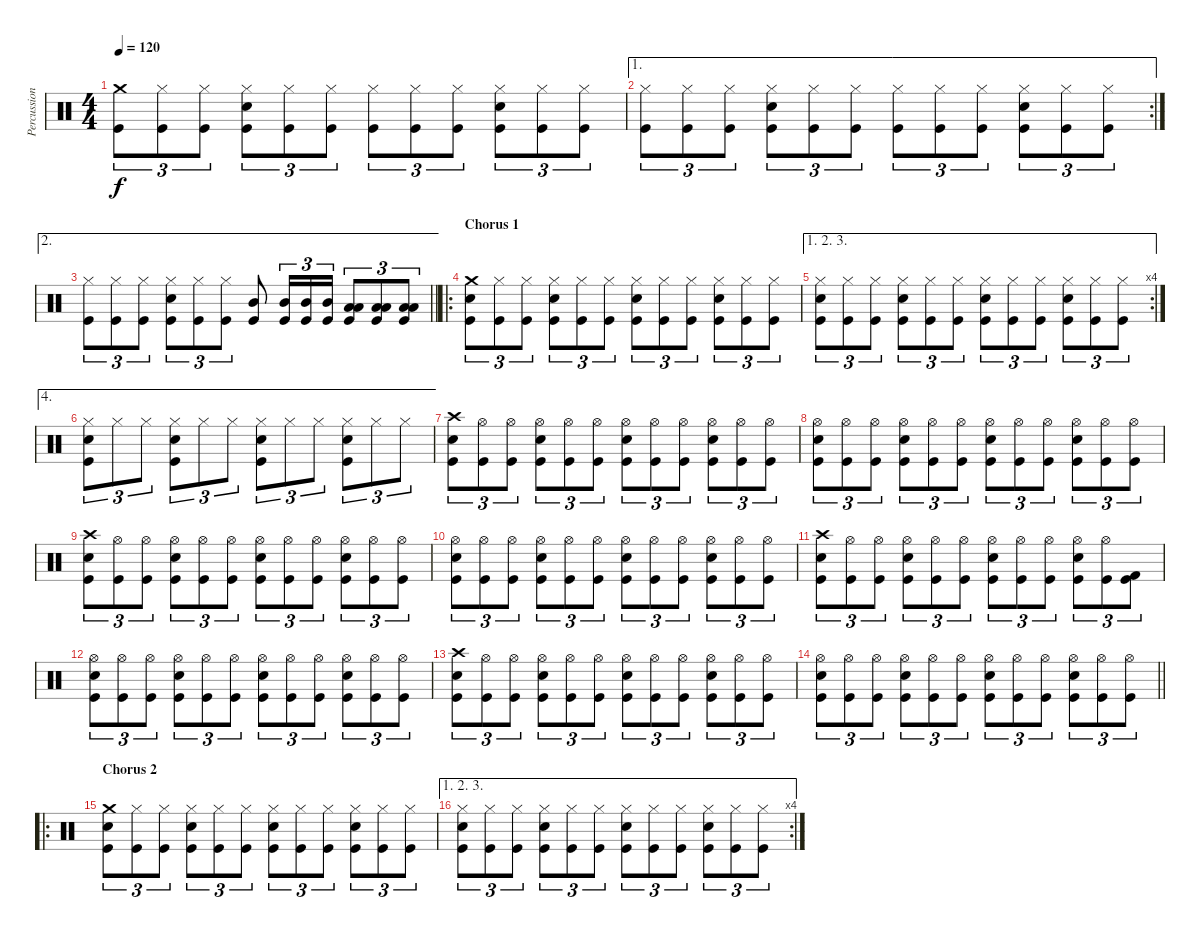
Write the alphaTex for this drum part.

\track ("Percussion" "Percussion") {instrument percussion}
\staff {score}
\articulation defaults
\ts (4 4)
\tempo 120
\clef neutral
\ks c
("Crash medium (hit)" "Kick (hit)").8{tu (3 2) dy f} ("Hi-Hat (closed)" "Kick (hit)").8{tu (3 2)} ("Hi-Hat (closed)" "Kick (hit)").8{tu (3 2)} ("Hi-Hat (closed)" "Snare (hit) 2" "Kick (hit)").8{tu (3 2)} ("Hi-Hat (closed)" "Kick (hit)").8{tu (3 2)} ("Hi-Hat (closed)" "Kick (hit)").8{tu (3 2)} ("Hi-Hat (closed)" "Kick (hit)").8{tu (3 2)} ("Hi-Hat (closed)" "Kick (hit)").8{tu (3 2)} ("Hi-Hat (closed)" "Kick (hit)").8{tu (3 2)} ("Hi-Hat (closed)" "Snare (hit) 2" "Kick (hit)").8{tu (3 2)} ("Hi-Hat (closed)" "Kick (hit)").8{tu (3 2)} ("Hi-Hat (closed)" "Kick (hit)").8{tu (3 2)} |
\ae 1
\rc 2
("Hi-Hat (closed)" "Kick (hit)").8{tu (3 2)} ("Hi-Hat (closed)" "Kick (hit)").8{tu (3 2)} ("Hi-Hat (closed)" "Kick (hit)").8{tu (3 2)} ("Hi-Hat (closed)" "Snare (hit) 2" "Kick (hit)").8{tu (3 2)} ("Hi-Hat (closed)" "Kick (hit)").8{tu (3 2)} ("Hi-Hat (closed)" "Kick (hit)").8{tu (3 2)} ("Hi-Hat (closed)" "Kick (hit)").8{tu (3 2)} ("Hi-Hat (closed)" "Kick (hit)").8{tu (3 2)} ("Hi-Hat (closed)" "Kick (hit)").8{tu (3 2)} ("Hi-Hat (closed)" "Snare (hit) 2" "Kick (hit)").8{tu (3 2)} ("Hi-Hat (closed)" "Kick (hit)").8{tu (3 2)} ("Hi-Hat (closed)" "Kick (hit)").8{tu (3 2)} |
\ae 2
\barLineRight lightlight
("Hi-Hat (closed)" "Kick (hit)").8{tu (3 2)} ("Hi-Hat (closed)" "Kick (hit)").8{tu (3 2)} ("Hi-Hat (closed)" "Kick (hit)").8{tu (3 2)} ("Hi-Hat (closed)" "Snare (hit) 2" "Kick (hit)").8{tu (3 2)} ("Hi-Hat (closed)" "Kick (hit)").8{tu (3 2)} ("Hi-Hat (closed)" "Kick (hit)").8{tu (3 2)} ("Mid Tom (hit)" "Kick (hit)").8 ("Mid Tom (hit)" "Kick (hit)").16{tu (3 2)} ("Mid Tom (hit)" "Kick (hit)").16{tu (3 2)} ("Mid Tom (hit)" "Kick (hit)").16{tu (3 2)} ("Low Tom (hit)" "Low Tom (hit)" "Kick (hit)").8{tu (3 2)} ("Low Tom (hit)" "Low Tom (hit)" "Kick (hit)").8{tu (3 2)} ("Low Tom (hit)" "Low Tom (hit)" "Kick (hit)").8{tu (3 2)} |
\ro
\section ("" "Chorus 1")
("Crash medium (hit)" "Snare (hit) 2" "Kick (hit)").8{tu (3 2)} ("Hi-Hat (closed)" "Kick (hit)").8{tu (3 2)} ("Hi-Hat (closed)" "Kick (hit)").8{tu (3 2)} ("Hi-Hat (closed)" "Snare (hit) 2" "Kick (hit)").8{tu (3 2)} ("Hi-Hat (closed)" "Kick (hit)").8{tu (3 2)} ("Hi-Hat (closed)" "Kick (hit)").8{tu (3 2)} ("Hi-Hat (closed)" "Snare (hit) 2" "Kick (hit)").8{tu (3 2)} ("Hi-Hat (closed)" "Kick (hit)").8{tu (3 2)} ("Hi-Hat (closed)" "Kick (hit)").8{tu (3 2)} ("Hi-Hat (closed)" "Snare (hit) 2" "Kick (hit)").8{tu (3 2)} ("Hi-Hat (closed)" "Kick (hit)").8{tu (3 2)} ("Hi-Hat (closed)" "Kick (hit)").8{tu (3 2)} |
\ae (1 2 3)
\rc 4
("Hi-Hat (closed)" "Snare (hit) 2" "Kick (hit)").8{tu (3 2)} ("Hi-Hat (closed)" "Kick (hit)").8{tu (3 2)} ("Hi-Hat (closed)" "Kick (hit)").8{tu (3 2)} ("Hi-Hat (closed)" "Snare (hit) 2" "Kick (hit)").8{tu (3 2)} ("Hi-Hat (closed)" "Kick (hit)").8{tu (3 2)} ("Hi-Hat (closed)" "Kick (hit)").8{tu (3 2)} ("Hi-Hat (closed)" "Snare (hit) 2" "Kick (hit)").8{tu (3 2)} ("Hi-Hat (closed)" "Kick (hit)").8{tu (3 2)} ("Hi-Hat (closed)" "Kick (hit)").8{tu (3 2)} ("Hi-Hat (closed)" "Snare (hit) 2" "Kick (hit)").8{tu (3 2)} ("Hi-Hat (closed)" "Kick (hit)").8{tu (3 2)} ("Hi-Hat (closed)" "Kick (hit)").8{tu (3 2)} |
\ae 4
("Hi-Hat (closed)" "Snare (hit) 2" "Kick (hit)").8{tu (3 2)} "Hi-Hat (closed)".8{tu (3 2)} "Hi-Hat (closed)".8{tu (3 2)} ("Hi-Hat (closed)" "Snare (hit) 2" "Kick (hit)").8{tu (3 2)} "Hi-Hat (closed)".8{tu (3 2)} "Hi-Hat (closed)".8{tu (3 2)} ("Hi-Hat (closed)" "Snare (hit) 2" "Kick (hit)").8{tu (3 2)} "Hi-Hat (closed)".8{tu (3 2)} "Hi-Hat (closed)".8{tu (3 2)} ("Hi-Hat (closed)" "Snare (hit) 2" "Kick (hit)").8{tu (3 2)} "Hi-Hat (closed)".8{tu (3 2)} "Hi-Hat (closed)".8{tu (3 2)} |
("Crash high (hit)" "Snare (hit) 2" "Kick (hit)").8{tu (3 2)} ("Hi-Hat (open)" "Kick (hit)").8{tu (3 2)} ("Hi-Hat (open)" "Kick (hit)").8{tu (3 2)} ("Hi-Hat (open)" "Snare (hit) 2" "Kick (hit)").8{tu (3 2)} ("Hi-Hat (open)" "Kick (hit)").8{tu (3 2)} ("Hi-Hat (open)" "Kick (hit)").8{tu (3 2)} ("Hi-Hat (open)" "Snare (hit) 2" "Kick (hit)").8{tu (3 2)} ("Hi-Hat (open)" "Kick (hit)").8{tu (3 2)} ("Hi-Hat (open)" "Kick (hit)").8{tu (3 2)} ("Hi-Hat (open)" "Snare (hit) 2" "Kick (hit)").8{tu (3 2)} ("Hi-Hat (open)" "Kick (hit)").8{tu (3 2)} ("Hi-Hat (open)" "Kick (hit)").8{tu (3 2)} |
("Hi-Hat (open)" "Snare (hit) 2" "Kick (hit)").8{tu (3 2)} ("Hi-Hat (open)" "Kick (hit)").8{tu (3 2)} ("Hi-Hat (open)" "Kick (hit)").8{tu (3 2)} ("Hi-Hat (open)" "Snare (hit) 2" "Kick (hit)").8{tu (3 2)} ("Hi-Hat (open)" "Kick (hit)").8{tu (3 2)} ("Hi-Hat (open)" "Kick (hit)").8{tu (3 2)} ("Hi-Hat (open)" "Snare (hit) 2" "Kick (hit)").8{tu (3 2)} ("Hi-Hat (open)" "Kick (hit)").8{tu (3 2)} ("Hi-Hat (open)" "Kick (hit)").8{tu (3 2)} ("Hi-Hat (open)" "Snare (hit) 2" "Kick (hit)").8{tu (3 2)} ("Hi-Hat (open)" "Kick (hit)").8{tu (3 2)} ("Hi-Hat (open)" "Kick (hit)").8{tu (3 2)} |
("Crash high (hit)" "Snare (hit) 2" "Kick (hit)").8{tu (3 2)} ("Hi-Hat (open)" "Kick (hit)").8{tu (3 2)} ("Hi-Hat (open)" "Kick (hit)").8{tu (3 2)} ("Hi-Hat (open)" "Snare (hit) 2" "Kick (hit)").8{tu (3 2)} ("Hi-Hat (open)" "Kick (hit)").8{tu (3 2)} ("Hi-Hat (open)" "Kick (hit)").8{tu (3 2)} ("Hi-Hat (open)" "Snare (hit) 2" "Kick (hit)").8{tu (3 2)} ("Hi-Hat (open)" "Kick (hit)").8{tu (3 2)} ("Hi-Hat (open)" "Kick (hit)").8{tu (3 2)} ("Hi-Hat (open)" "Snare (hit) 2" "Kick (hit)").8{tu (3 2)} ("Hi-Hat (open)" "Kick (hit)").8{tu (3 2)} ("Hi-Hat (open)" "Kick (hit)").8{tu (3 2)} |
("Hi-Hat (open)" "Snare (hit) 2" "Kick (hit)").8{tu (3 2)} ("Hi-Hat (open)" "Kick (hit)").8{tu (3 2)} ("Hi-Hat (open)" "Kick (hit)").8{tu (3 2)} ("Hi-Hat (open)" "Snare (hit) 2" "Kick (hit)").8{tu (3 2)} ("Hi-Hat (open)" "Kick (hit)").8{tu (3 2)} ("Hi-Hat (open)" "Kick (hit)").8{tu (3 2)} ("Hi-Hat (open)" "Snare (hit) 2" "Kick (hit)").8{tu (3 2)} ("Hi-Hat (open)" "Kick (hit)").8{tu (3 2)} ("Hi-Hat (open)" "Kick (hit)").8{tu (3 2)} ("Hi-Hat (open)" "Snare (hit) 2" "Kick (hit)").8{tu (3 2)} ("Hi-Hat (open)" "Kick (hit)").8{tu (3 2)} ("Hi-Hat (open)" "Kick (hit)").8{tu (3 2)} |
("Crash high (hit)" "Snare (hit) 2" "Kick (hit)").8{tu (3 2)} ("Hi-Hat (open)" "Kick (hit)").8{tu (3 2)} ("Hi-Hat (open)" "Kick (hit)").8{tu (3 2)} ("Hi-Hat (open)" "Snare (hit) 2" "Kick (hit)").8{tu (3 2)} ("Hi-Hat (open)" "Kick (hit)").8{tu (3 2)} ("Hi-Hat (open)" "Kick (hit)").8{tu (3 2)} ("Hi-Hat (open)" "Snare (hit) 2" "Kick (hit)").8{tu (3 2)} ("Hi-Hat (open)" "Kick (hit)").8{tu (3 2)} ("Hi-Hat (open)" "Kick (hit)").8{tu (3 2)} ("Hi-Hat (open)" "Snare (hit) 2" "Kick (hit)").8{tu (3 2)} ("Hi-Hat (open)" "Kick (hit)").8{tu (3 2)} ("Kick (hit) 2" "Kick (hit)").8{tu (3 2)} |
("Hi-Hat (open)" "Snare (hit) 2" "Kick (hit)").8{tu (3 2)} ("Hi-Hat (open)" "Kick (hit)").8{tu (3 2)} ("Hi-Hat (open)" "Kick (hit)").8{tu (3 2)} ("Hi-Hat (open)" "Snare (hit) 2" "Kick (hit)").8{tu (3 2)} ("Hi-Hat (open)" "Kick (hit)").8{tu (3 2)} ("Hi-Hat (open)" "Kick (hit)").8{tu (3 2)} ("Hi-Hat (open)" "Snare (hit) 2" "Kick (hit)").8{tu (3 2)} ("Hi-Hat (open)" "Kick (hit)").8{tu (3 2)} ("Hi-Hat (open)" "Kick (hit)").8{tu (3 2)} ("Hi-Hat (open)" "Snare (hit) 2" "Kick (hit)").8{tu (3 2)} ("Hi-Hat (open)" "Kick (hit)").8{tu (3 2)} ("Hi-Hat (open)" "Kick (hit)").8{tu (3 2)} |
("Crash high (hit)" "Snare (hit) 2" "Kick (hit)").8{tu (3 2)} ("Hi-Hat (open)" "Kick (hit)").8{tu (3 2)} ("Hi-Hat (open)" "Kick (hit)").8{tu (3 2)} ("Hi-Hat (open)" "Snare (hit) 2" "Kick (hit)").8{tu (3 2)} ("Hi-Hat (open)" "Kick (hit)").8{tu (3 2)} ("Hi-Hat (open)" "Kick (hit)").8{tu (3 2)} ("Hi-Hat (open)" "Snare (hit) 2" "Kick (hit)").8{tu (3 2)} ("Hi-Hat (open)" "Kick (hit)").8{tu (3 2)} ("Hi-Hat (open)" "Kick (hit)").8{tu (3 2)} ("Hi-Hat (open)" "Snare (hit) 2" "Kick (hit)").8{tu (3 2)} ("Hi-Hat (open)" "Kick (hit)").8{tu (3 2)} ("Hi-Hat (open)" "Kick (hit)").8{tu (3 2)} |
\barLineRight lightlight
("Hi-Hat (open)" "Snare (hit) 2" "Kick (hit)").8{tu (3 2)} ("Hi-Hat (open)" "Kick (hit)").8{tu (3 2)} ("Hi-Hat (open)" "Kick (hit)").8{tu (3 2)} ("Hi-Hat (open)" "Snare (hit) 2" "Kick (hit)").8{tu (3 2)} ("Hi-Hat (open)" "Kick (hit)").8{tu (3 2)} ("Hi-Hat (open)" "Kick (hit)").8{tu (3 2)} ("Hi-Hat (open)" "Snare (hit) 2" "Kick (hit)").8{tu (3 2)} ("Hi-Hat (open)" "Kick (hit)").8{tu (3 2)} ("Hi-Hat (open)" "Kick (hit)").8{tu (3 2)} ("Hi-Hat (open)" "Snare (hit) 2" "Kick (hit)").8{tu (3 2)} ("Hi-Hat (open)" "Kick (hit)").8{tu (3 2)} ("Hi-Hat (open)" "Kick (hit)").8{tu (3 2)} |
\ro
\section ("" "Chorus 2")
("Crash medium (hit)" "Snare (hit) 2" "Kick (hit)").8{tu (3 2)} ("Hi-Hat (closed)" "Kick (hit)").8{tu (3 2)} ("Hi-Hat (closed)" "Kick (hit)").8{tu (3 2)} ("Hi-Hat (closed)" "Snare (hit) 2" "Kick (hit)").8{tu (3 2)} ("Hi-Hat (closed)" "Kick (hit)").8{tu (3 2)} ("Hi-Hat (closed)" "Kick (hit)").8{tu (3 2)} ("Hi-Hat (closed)" "Snare (hit) 2" "Kick (hit)").8{tu (3 2)} ("Hi-Hat (closed)" "Kick (hit)").8{tu (3 2)} ("Hi-Hat (closed)" "Kick (hit)").8{tu (3 2)} ("Hi-Hat (closed)" "Snare (hit) 2" "Kick (hit)").8{tu (3 2)} ("Hi-Hat (closed)" "Kick (hit)").8{tu (3 2)} ("Hi-Hat (closed)" "Kick (hit)").8{tu (3 2)} |
\ae (1 2 3)
\rc 4
("Hi-Hat (closed)" "Snare (hit) 2" "Kick (hit)").8{tu (3 2)} ("Hi-Hat (closed)" "Kick (hit)").8{tu (3 2)} ("Hi-Hat (closed)" "Kick (hit)").8{tu (3 2)} ("Hi-Hat (closed)" "Snare (hit) 2" "Kick (hit)").8{tu (3 2)} ("Hi-Hat (closed)" "Kick (hit)").8{tu (3 2)} ("Hi-Hat (closed)" "Kick (hit)").8{tu (3 2)} ("Hi-Hat (closed)" "Snare (hit) 2" "Kick (hit)").8{tu (3 2)} ("Hi-Hat (closed)" "Kick (hit)").8{tu (3 2)} ("Hi-Hat (closed)" "Kick (hit)").8{tu (3 2)} ("Hi-Hat (closed)" "Snare (hit) 2" "Kick (hit)").8{tu (3 2)} ("Hi-Hat (closed)" "Kick (hit)").8{tu (3 2)} ("Hi-Hat (closed)" "Kick (hit)").8{tu (3 2)}
